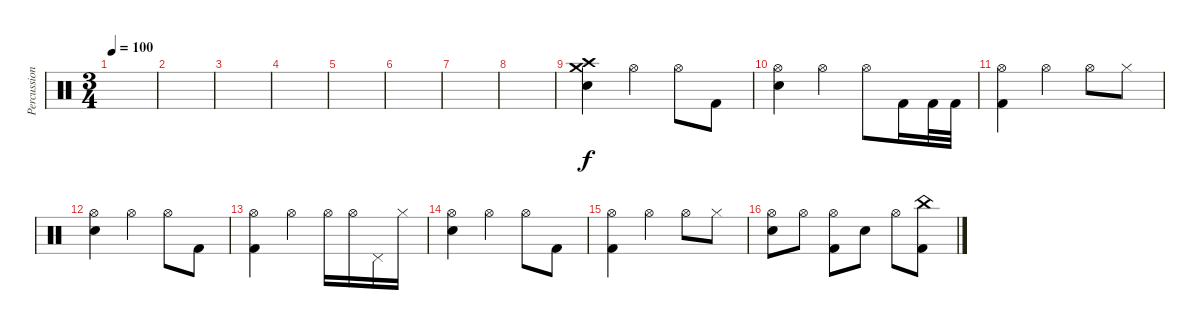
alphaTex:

\track ("Percussion" "Percussion") {instrument percussion}
\staff {score}
\articulation defaults
\ts (3 4)
\tempo 100
\clef neutral
\ks c
|
|
|
|
|
|
|
|
("Crash high (hit)" "Crash medium (hit)" "Hand Clap (hit)").4 "Hi-Hat (open)".4 "Hi-Hat (open)".8 "Kick (hit) 2".8 |
("Hi-Hat (open)" "Electric Snare (hit)").4 "Hi-Hat (open)".4 "Hi-Hat (open)".8 "Kick (hit) 2".16 "Kick (hit) 2".32 "Kick (hit) 2".32 |
("Hi-Hat (open)" "Kick (hit) 2").4 "Hi-Hat (open)".4 "Hi-Hat (open)".8 "Hi-Hat (closed)".8 |
("Hi-Hat (open)" "Electric Snare (hit)").4 "Hi-Hat (open)".4 "Hi-Hat (open)".8 "Kick (hit) 2".8 |
("Hi-Hat (open)" "Kick (hit) 2").4 "Hi-Hat (open)".4 "Hi-Hat (open)".16 "Hi-Hat (open)".16 "Pedal Hi-Hat (hit)".16 "Hi-Hat (closed)".16 |
("Hi-Hat (open)" "Electric Snare (hit)").4 "Hi-Hat (open)".4 "Hi-Hat (open)".8 "Kick (hit) 2".8 |
("Hi-Hat (open)" "Kick (hit) 2").4 "Hi-Hat (open)".4 "Hi-Hat (open)".8 "Hi-Hat (closed)".8 |
("Hi-Hat (open)" "Electric Snare (hit)").8 "Hi-Hat (open)".8 ("Hi-Hat (open)" "Kick (hit) 2").8 "Electric Snare (hit)".8 "Hi-Hat (open)".8 ("China (hit)" "Kick (hit) 2").8
